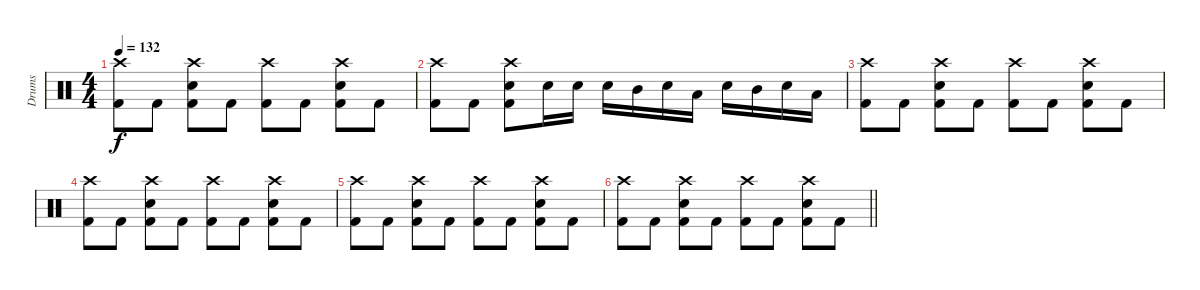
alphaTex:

\track ("Drums" "Drums") {instrument percussion}
\staff {score}
\articulation defaults
\ts (4 4)
\tempo 132
\clef neutral
\ks c
("Crash high (hit)" "Kick (hit) 2").8{dy f} "Kick (hit) 2".8 ("Crash high (hit)" "Electric Snare (hit)" "Kick (hit) 2").8 "Kick (hit) 2".8 ("Crash high (hit)" "Kick (hit) 2").8 "Kick (hit) 2".8 ("Crash high (hit)" "Electric Snare (hit)" "Kick (hit) 2").8 "Kick (hit) 2".8 |
("Crash high (hit)" "Kick (hit) 2").8{volume 0} "Kick (hit) 2".8 ("Crash high (hit)" "Electric Snare (hit)" "Kick (hit) 2").8 "Snare (hit) 2".16 "Snare (hit) 2".16 "Snare (hit) 2".16 "Mid Tom (hit)".16 "Snare (hit) 2".16 "Low Tom (hit)".16 "Snare (hit) 2".16 "Mid Tom (hit)".16 "Snare (hit) 2".16 "Low Tom (hit)".16 |
("Crash high (hit)" "Kick (hit) 2").8 "Kick (hit) 2".8 ("Crash high (hit)" "Electric Snare (hit)" "Kick (hit) 2").8 "Kick (hit) 2".8 ("Crash high (hit)" "Kick (hit) 2").8 "Kick (hit) 2".8 ("Crash high (hit)" "Electric Snare (hit)" "Kick (hit) 2").8 "Kick (hit) 2".8 |
("Crash high (hit)" "Kick (hit) 2").8 "Kick (hit) 2".8 ("Crash high (hit)" "Electric Snare (hit)" "Kick (hit) 2").8 "Kick (hit) 2".8 ("Crash high (hit)" "Kick (hit) 2").8 "Kick (hit) 2".8 ("Crash high (hit)" "Electric Snare (hit)" "Kick (hit) 2").8 "Kick (hit) 2".8 |
("Crash high (hit)" "Kick (hit) 2").8 "Kick (hit) 2".8 ("Crash high (hit)" "Electric Snare (hit)" "Kick (hit) 2").8 "Kick (hit) 2".8 ("Crash high (hit)" "Kick (hit) 2").8 "Kick (hit) 2".8 ("Crash high (hit)" "Electric Snare (hit)" "Kick (hit) 2").8 "Kick (hit) 2".8 |
\barLineRight lightlight
("Crash high (hit)" "Kick (hit) 2").8 "Kick (hit) 2".8 ("Crash high (hit)" "Electric Snare (hit)" "Kick (hit) 2").8 "Kick (hit) 2".8 ("Crash high (hit)" "Kick (hit) 2").8 "Kick (hit) 2".8 ("Crash high (hit)" "Electric Snare (hit)" "Kick (hit) 2").8 "Kick (hit) 2".8
